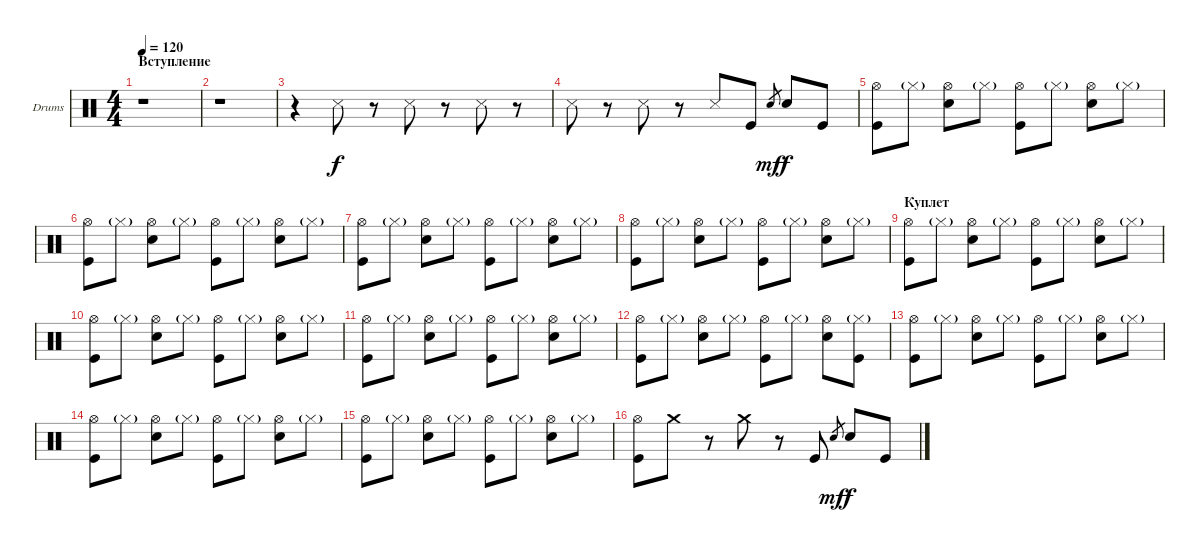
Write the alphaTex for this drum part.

\bracketExtendMode groupsimilarinstruments
\firstSystemTrackNameOrientation horizontal
\otherSystemsTrackNameOrientation horizontal
\track ("Drumkit" "Drums") {instrument percussion}
\staff {score}
\articulation defaults
\ts (4 4)
\section ("" "Вступление")
\tempo 120
\clef neutral
\ks c
r.1{dy f} |
r.1 |
r.4 "Snare (side stick) 3".8 r.8 "Snare (side stick) 3".8 r.8 "Snare (side stick) 3".8 r.8 |
"Snare (side stick) 3".8 r.8 "Snare (side stick) 3".8 r.8 "Snare (side stick) 3".8 "Kick (hit)".8 "Snare (hit) 2".8{gr dy mf} "Snare (hit) 2".8{dy f} "Kick (hit)".8 |
("Kick (hit)" "Hi-Hat (open)").8 "Hi-Hat (closed)"{g}.8 ("Snare (hit) 2" "Hi-Hat (open)").8 "Hi-Hat (closed)"{g}.8 ("Kick (hit)" "Hi-Hat (open)").8 "Hi-Hat (closed)"{g}.8 ("Snare (hit) 2" "Hi-Hat (open)").8 "Hi-Hat (closed)"{g}.8 |
("Kick (hit)" "Hi-Hat (open)").8 "Hi-Hat (closed)"{g}.8 ("Snare (hit) 2" "Hi-Hat (open)").8 "Hi-Hat (closed)"{g}.8 ("Kick (hit)" "Hi-Hat (open)").8 "Hi-Hat (closed)"{g}.8 ("Snare (hit) 2" "Hi-Hat (open)").8 "Hi-Hat (closed)"{g}.8 |
("Kick (hit)" "Hi-Hat (open)").8 "Hi-Hat (closed)"{g}.8 ("Snare (hit) 2" "Hi-Hat (open)").8 "Hi-Hat (closed)"{g}.8 ("Kick (hit)" "Hi-Hat (open)").8 "Hi-Hat (closed)"{g}.8 ("Snare (hit) 2" "Hi-Hat (open)").8 "Hi-Hat (closed)"{g}.8 |
("Kick (hit)" "Hi-Hat (open)").8 "Hi-Hat (closed)"{g}.8 ("Snare (hit) 2" "Hi-Hat (open)").8 "Hi-Hat (closed)"{g}.8 ("Kick (hit)" "Hi-Hat (open)").8 "Hi-Hat (closed)"{g}.8 ("Snare (hit) 2" "Hi-Hat (open)").8 "Hi-Hat (closed)"{g}.8 |
\section ("" "Куплет")
("Kick (hit)" "Hi-Hat (open)").8 "Hi-Hat (closed)"{g}.8 ("Snare (hit) 2" "Hi-Hat (open)").8 "Hi-Hat (closed)"{g}.8 ("Kick (hit)" "Hi-Hat (open)").8 "Hi-Hat (closed)"{g}.8 ("Snare (hit) 2" "Hi-Hat (open)").8 "Hi-Hat (closed)"{g}.8 |
("Kick (hit)" "Hi-Hat (open)").8 "Hi-Hat (closed)"{g}.8 ("Snare (hit) 2" "Hi-Hat (open)").8 "Hi-Hat (closed)"{g}.8 ("Kick (hit)" "Hi-Hat (open)").8 "Hi-Hat (closed)"{g}.8 ("Snare (hit) 2" "Hi-Hat (open)").8 "Hi-Hat (closed)"{g}.8 |
("Kick (hit)" "Hi-Hat (open)").8 "Hi-Hat (closed)"{g}.8 ("Snare (hit) 2" "Hi-Hat (open)").8 "Hi-Hat (closed)"{g}.8 ("Kick (hit)" "Hi-Hat (open)").8 "Hi-Hat (closed)"{g}.8 ("Snare (hit) 2" "Hi-Hat (open)").8 "Hi-Hat (closed)"{g}.8 |
("Kick (hit)" "Hi-Hat (open)").8 "Hi-Hat (closed)"{g}.8 ("Snare (hit) 2" "Hi-Hat (open)").8 "Hi-Hat (closed)"{g}.8 ("Kick (hit)" "Hi-Hat (open)").8 "Hi-Hat (closed)"{g}.8 ("Snare (hit) 2" "Hi-Hat (open)").8 ("Kick (hit)" "Hi-Hat (closed)"{g}).8 |
("Kick (hit)" "Hi-Hat (open)").8 "Hi-Hat (closed)"{g}.8 ("Snare (hit) 2" "Hi-Hat (open)").8 "Hi-Hat (closed)"{g}.8 ("Kick (hit)" "Hi-Hat (open)").8 "Hi-Hat (closed)"{g}.8 ("Snare (hit) 2" "Hi-Hat (open)").8 "Hi-Hat (closed)"{g}.8 |
("Kick (hit)" "Hi-Hat (open)").8 "Hi-Hat (closed)"{g}.8 ("Snare (hit) 2" "Hi-Hat (open)").8 "Hi-Hat (closed)"{g}.8 ("Kick (hit)" "Hi-Hat (open)").8 "Hi-Hat (closed)"{g}.8 ("Snare (hit) 2" "Hi-Hat (open)").8 "Hi-Hat (closed)"{g}.8 |
("Kick (hit)" "Hi-Hat (open)").8 "Hi-Hat (closed)"{g}.8 ("Snare (hit) 2" "Hi-Hat (open)").8 "Hi-Hat (closed)"{g}.8 ("Kick (hit)" "Hi-Hat (open)").8 "Hi-Hat (closed)"{g}.8 ("Snare (hit) 2" "Hi-Hat (open)").8 "Hi-Hat (closed)"{g}.8 |
("Kick (hit)" "Hi-Hat (open)").8 "Crash medium (hit)".8 r.8 "Crash medium (hit)".8 r.8 "Kick (hit)".8 "Snare (hit) 2".8{gr dy mf} "Snare (hit) 2".8{dy f} "Kick (hit)".8
